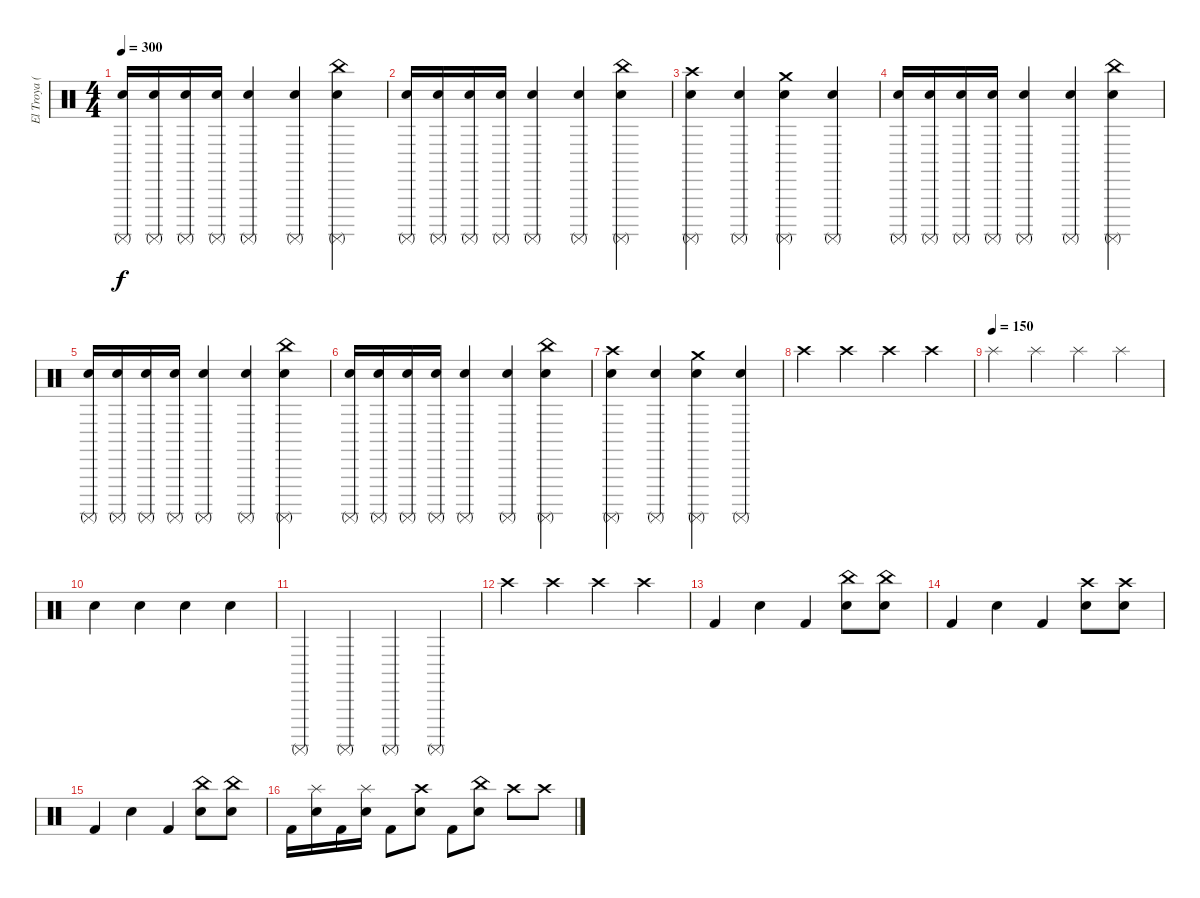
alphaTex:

\track ("El Troya (premio)" "El Troya (") {instrument percussion}
\staff {score}
\articulation defaults
\ts (4 4)
\tempo 300
\clef neutral
\ks c
("Electric Snare (hit)" "Surdo (mute)").16{dy f} ("Electric Snare (hit)" "Surdo (mute)").16 ("Electric Snare (hit)" "Surdo (mute)").16 ("Electric Snare (hit)" "Surdo (mute)").16 ("Electric Snare (hit)" "Surdo (mute)").4 ("Electric Snare (hit)" "Surdo (mute)").4 ("China (hit)" "Electric Snare (hit)" "Surdo (mute)").4 |
("Electric Snare (hit)" "Surdo (mute)").16 ("Electric Snare (hit)" "Surdo (mute)").16 ("Electric Snare (hit)" "Surdo (mute)").16 ("Electric Snare (hit)" "Surdo (mute)").16 ("Electric Snare (hit)" "Surdo (mute)").4 ("Electric Snare (hit)" "Surdo (mute)").4 ("China (hit)" "Electric Snare (hit)" "Surdo (mute)").4 |
("Crash high (hit)" "Electric Snare (hit)" "Surdo (mute)").4 ("Electric Snare (hit)" "Surdo (mute)").4 ("Crash medium (hit)" "Electric Snare (hit)" "Surdo (mute)").4 ("Electric Snare (hit)" "Surdo (mute)").4 |
("Electric Snare (hit)" "Surdo (mute)").16 ("Electric Snare (hit)" "Surdo (mute)").16 ("Electric Snare (hit)" "Surdo (mute)").16 ("Electric Snare (hit)" "Surdo (mute)").16 ("Electric Snare (hit)" "Surdo (mute)").4 ("Electric Snare (hit)" "Surdo (mute)").4 ("China (hit)" "Electric Snare (hit)" "Surdo (mute)").4 |
("Electric Snare (hit)" "Surdo (mute)").16 ("Electric Snare (hit)" "Surdo (mute)").16 ("Electric Snare (hit)" "Surdo (mute)").16 ("Electric Snare (hit)" "Surdo (mute)").16 ("Electric Snare (hit)" "Surdo (mute)").4 ("Electric Snare (hit)" "Surdo (mute)").4 ("China (hit)" "Electric Snare (hit)" "Surdo (mute)").4 |
("Electric Snare (hit)" "Surdo (mute)").16 ("Electric Snare (hit)" "Surdo (mute)").16 ("Electric Snare (hit)" "Surdo (mute)").16 ("Electric Snare (hit)" "Surdo (mute)").16 ("Electric Snare (hit)" "Surdo (mute)").4 ("Electric Snare (hit)" "Surdo (mute)").4 ("China (hit)" "Electric Snare (hit)" "Surdo (mute)").4 |
("Crash high (hit)" "Electric Snare (hit)" "Surdo (mute)").4 ("Electric Snare (hit)" "Surdo (mute)").4 ("Crash medium (hit)" "Electric Snare (hit)" "Surdo (mute)").4 ("Electric Snare (hit)" "Surdo (mute)").4 |
"Crash high (hit)".4 "Crash high (hit)".4 "Crash high (hit)".4 "Crash high (hit)".4 |
\tempo (150)
"Splash (hit)".4 "Splash (hit)".4 "Splash (hit)".4 "Splash (hit)".4 |
"Snare (hit) 2".4 "Snare (hit) 2".4 "Snare (hit) 2".4 "Snare (hit) 2".4 |
"Surdo (mute)".4 "Surdo (mute)".4 "Surdo (mute)".4 "Surdo (mute)".4 |
"Crash high (hit)".4 "Crash high (hit)".4 "Crash high (hit)".4 "Crash high (hit)".4 |
"Kick (hit) 2".4 "Snare (hit) 2".4 "Kick (hit) 2".4 ("China (hit)" "Snare (hit) 2").8 ("China (hit)" "Snare (hit) 2").8 |
"Kick (hit) 2".4 "Snare (hit) 2".4 "Kick (hit) 2".4 ("Crash high (hit)" "Snare (hit) 2").8 ("Crash high (hit)" "Snare (hit) 2").8 |
"Kick (hit) 2".4 "Snare (hit) 2".4 "Kick (hit) 2".4 ("China (hit)" "Snare (hit) 2").8 ("China (hit)" "Snare (hit) 2").8 |
"Kick (hit) 2".16 ("Splash (hit)" "Snare (hit) 2").16 "Kick (hit) 2".16 ("Splash (hit)" "Snare (hit) 2").16 "Kick (hit) 2".8 ("Crash high (hit)" "Snare (hit) 2").8 "Kick (hit) 2".8 ("China (hit)" "Snare (hit) 2").8 "Crash high (hit)".8 "Crash high (hit)".8
